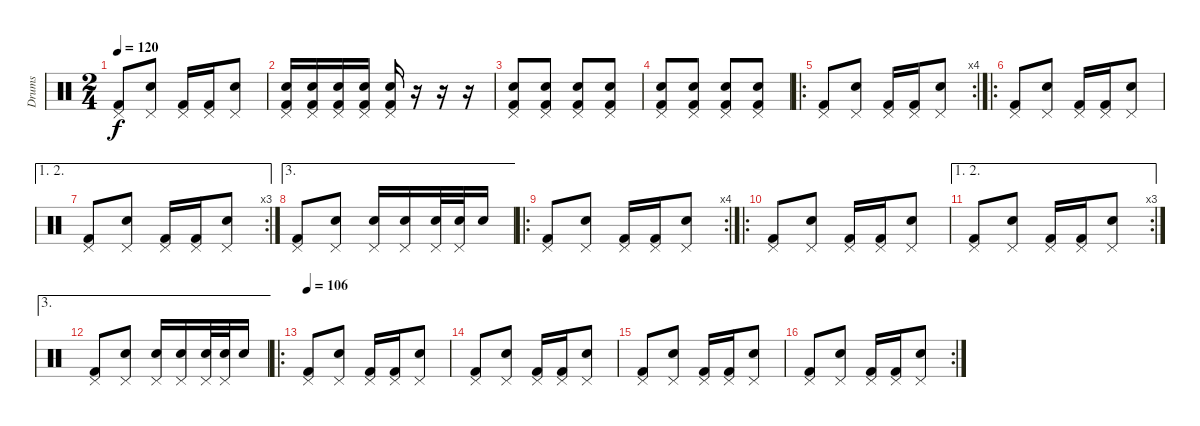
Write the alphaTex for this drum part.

\track ("Drums" "Drums") {instrument percussion}
\staff {score}
\articulation defaults
\ts (2 4)
\tempo 120
\clef neutral
\ks c
("Kick (hit) 2" "Pedal Hi-Hat (hit)").8{dy f} ("Electric Snare (hit)" "Pedal Hi-Hat (hit)").8 ("Kick (hit) 2" "Pedal Hi-Hat (hit)").16 ("Kick (hit) 2" "Pedal Hi-Hat (hit)").16 ("Electric Snare (hit)" "Pedal Hi-Hat (hit)").8 |
("Electric Snare (hit)" "Kick (hit) 2" "Pedal Hi-Hat (hit)").16 ("Electric Snare (hit)" "Kick (hit) 2" "Pedal Hi-Hat (hit)").16 ("Electric Snare (hit)" "Kick (hit) 2" "Pedal Hi-Hat (hit)").16 ("Electric Snare (hit)" "Kick (hit) 2" "Pedal Hi-Hat (hit)").16 ("Electric Snare (hit)" "Kick (hit) 2" "Pedal Hi-Hat (hit)").16 r.16 r.16 r.16 |
("Electric Snare (hit)" "Kick (hit) 2" "Pedal Hi-Hat (hit)").8 ("Electric Snare (hit)" "Kick (hit) 2" "Pedal Hi-Hat (hit)").8 ("Electric Snare (hit)" "Kick (hit) 2" "Pedal Hi-Hat (hit)").8 ("Electric Snare (hit)" "Kick (hit) 2" "Pedal Hi-Hat (hit)").8 |
("Electric Snare (hit)" "Kick (hit) 2" "Pedal Hi-Hat (hit)").8 ("Electric Snare (hit)" "Kick (hit) 2" "Pedal Hi-Hat (hit)").8 ("Electric Snare (hit)" "Kick (hit) 2" "Pedal Hi-Hat (hit)").8 ("Electric Snare (hit)" "Kick (hit) 2" "Pedal Hi-Hat (hit)").8 |
\ro
\rc 4
("Kick (hit) 2" "Pedal Hi-Hat (hit)").8 ("Electric Snare (hit)" "Pedal Hi-Hat (hit)").8 ("Kick (hit) 2" "Pedal Hi-Hat (hit)").16 ("Kick (hit) 2" "Pedal Hi-Hat (hit)").16 ("Electric Snare (hit)" "Pedal Hi-Hat (hit)").8 |
\ro
("Kick (hit) 2" "Pedal Hi-Hat (hit)").8 ("Electric Snare (hit)" "Pedal Hi-Hat (hit)").8 ("Kick (hit) 2" "Pedal Hi-Hat (hit)").16 ("Kick (hit) 2" "Pedal Hi-Hat (hit)").16 ("Electric Snare (hit)" "Pedal Hi-Hat (hit)").8 |
\ae (1 2)
\rc 3
("Kick (hit) 2" "Pedal Hi-Hat (hit)").8 ("Electric Snare (hit)" "Pedal Hi-Hat (hit)").8 ("Kick (hit) 2" "Pedal Hi-Hat (hit)").16 ("Kick (hit) 2" "Pedal Hi-Hat (hit)").16 ("Electric Snare (hit)" "Pedal Hi-Hat (hit)").8 |
\ae 3
("Kick (hit) 2" "Pedal Hi-Hat (hit)").8 ("Electric Snare (hit)" "Pedal Hi-Hat (hit)").8 ("Electric Snare (hit)" "Pedal Hi-Hat (hit)").16 ("Electric Snare (hit)" "Pedal Hi-Hat (hit)").16 ("Electric Snare (hit)" "Pedal Hi-Hat (hit)").32 ("Electric Snare (hit)" "Pedal Hi-Hat (hit)").32 "Electric Snare (hit)".16 |
\ro
\rc 4
("Kick (hit) 2" "Pedal Hi-Hat (hit)").8 ("Electric Snare (hit)" "Pedal Hi-Hat (hit)").8 ("Kick (hit) 2" "Pedal Hi-Hat (hit)").16 ("Kick (hit) 2" "Pedal Hi-Hat (hit)").16 ("Electric Snare (hit)" "Pedal Hi-Hat (hit)").8 |
\ro
("Kick (hit) 2" "Pedal Hi-Hat (hit)").8 ("Electric Snare (hit)" "Pedal Hi-Hat (hit)").8 ("Kick (hit) 2" "Pedal Hi-Hat (hit)").16 ("Kick (hit) 2" "Pedal Hi-Hat (hit)").16 ("Electric Snare (hit)" "Pedal Hi-Hat (hit)").8 |
\ae (1 2)
\rc 3
("Kick (hit) 2" "Pedal Hi-Hat (hit)").8 ("Electric Snare (hit)" "Pedal Hi-Hat (hit)").8 ("Kick (hit) 2" "Pedal Hi-Hat (hit)").16 ("Kick (hit) 2" "Pedal Hi-Hat (hit)").16 ("Electric Snare (hit)" "Pedal Hi-Hat (hit)").8 |
\ae 3
("Kick (hit) 2" "Pedal Hi-Hat (hit)").8 ("Electric Snare (hit)" "Pedal Hi-Hat (hit)").8 ("Electric Snare (hit)" "Pedal Hi-Hat (hit)").16 ("Electric Snare (hit)" "Pedal Hi-Hat (hit)").16 ("Electric Snare (hit)" "Pedal Hi-Hat (hit)").32 ("Electric Snare (hit)" "Pedal Hi-Hat (hit)").32 "Electric Snare (hit)".16 |
\ro
\tempo 106
("Kick (hit) 2" "Pedal Hi-Hat (hit)").8 ("Electric Snare (hit)" "Pedal Hi-Hat (hit)").8 ("Kick (hit) 2" "Pedal Hi-Hat (hit)").16 ("Kick (hit) 2" "Pedal Hi-Hat (hit)").16 ("Electric Snare (hit)" "Pedal Hi-Hat (hit)").8 |
("Kick (hit) 2" "Pedal Hi-Hat (hit)").8 ("Electric Snare (hit)" "Pedal Hi-Hat (hit)").8 ("Kick (hit) 2" "Pedal Hi-Hat (hit)").16 ("Kick (hit) 2" "Pedal Hi-Hat (hit)").16 ("Electric Snare (hit)" "Pedal Hi-Hat (hit)").8 |
("Kick (hit) 2" "Pedal Hi-Hat (hit)").8 ("Electric Snare (hit)" "Pedal Hi-Hat (hit)").8 ("Kick (hit) 2" "Pedal Hi-Hat (hit)").16 ("Kick (hit) 2" "Pedal Hi-Hat (hit)").16 ("Electric Snare (hit)" "Pedal Hi-Hat (hit)").8 |
\rc 2
("Kick (hit) 2" "Pedal Hi-Hat (hit)").8 ("Electric Snare (hit)" "Pedal Hi-Hat (hit)").8 ("Kick (hit) 2" "Pedal Hi-Hat (hit)").16 ("Kick (hit) 2" "Pedal Hi-Hat (hit)").16 ("Electric Snare (hit)" "Pedal Hi-Hat (hit)").8
